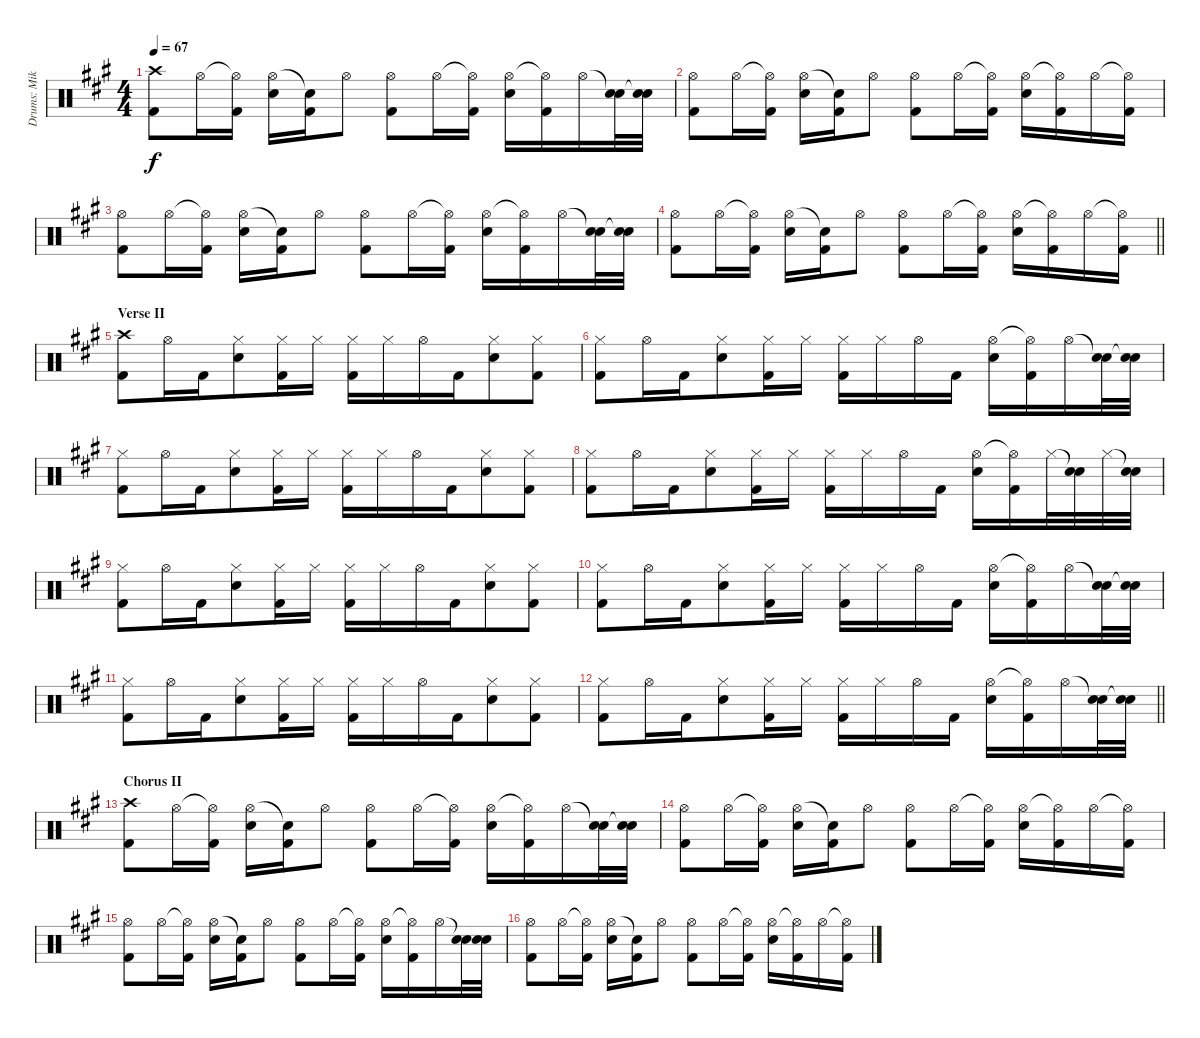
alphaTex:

\track ("Drums: Mike" "Drums: Mik") {instrument percussion}
\staff {score}
\articulation defaults
\ts (4 4)
\tempo 67
\clef neutral
\ks a
("Crash high (hit)" "Kick (hit) 2").8{dy f} "Hi-Hat (open)".16 ("Hi-Hat (open)"{t} "Kick (hit) 2").16 ("Hi-Hat (open)" "Electric Snare (hit)").16 ("Snare (hit)"{t} "Kick (hit) 2").16 "Hi-Hat (open)".8 ("Hi-Hat (open)" "Kick (hit) 2").8 "Hi-Hat (open)".16 ("Hi-Hat (open)"{t} "Kick (hit) 2").16 ("Hi-Hat (open)" "Electric Snare (hit)").16 ("Hi-Hat (open)"{t} "Kick (hit) 2").16 "Hi-Hat (open)".16 ("Snare (hit)"{t} "Electric Snare (hit)").32 ("Snare (hit)"{t} "Electric Snare (hit)").32 |
("Hi-Hat (open)" "Kick (hit) 2").8 "Hi-Hat (open)".16 ("Hi-Hat (open)"{t} "Kick (hit) 2").16 ("Hi-Hat (open)" "Electric Snare (hit)").16 ("Snare (hit)"{t} "Kick (hit) 2").16 "Hi-Hat (open)".8 ("Hi-Hat (open)" "Kick (hit) 2").8 "Hi-Hat (open)".16 ("Hi-Hat (open)"{t} "Kick (hit) 2").16 ("Hi-Hat (open)" "Electric Snare (hit)").16 ("Hi-Hat (open)"{t} "Kick (hit) 2").16 "Hi-Hat (open)".16 ("Hi-Hat (open)"{t} "Kick (hit) 2").16 |
("Hi-Hat (open)" "Kick (hit) 2").8 "Hi-Hat (open)".16 ("Hi-Hat (open)"{t} "Kick (hit) 2").16 ("Hi-Hat (open)" "Electric Snare (hit)").16 ("Snare (hit)"{t} "Kick (hit) 2").16 "Hi-Hat (open)".8 ("Hi-Hat (open)" "Kick (hit) 2").8 "Hi-Hat (open)".16 ("Hi-Hat (open)"{t} "Kick (hit) 2").16 ("Hi-Hat (open)" "Electric Snare (hit)").16 ("Hi-Hat (open)"{t} "Kick (hit) 2").16 "Hi-Hat (open)".16 ("Snare (hit)"{t} "Electric Snare (hit)").32 ("Snare (hit)"{t} "Electric Snare (hit)").32 |
\barLineRight lightlight
("Hi-Hat (open)" "Kick (hit) 2").8 "Hi-Hat (open)".16 ("Hi-Hat (open)"{t} "Kick (hit) 2").16 ("Hi-Hat (open)" "Electric Snare (hit)").16 ("Snare (hit)"{t} "Kick (hit) 2").16 "Hi-Hat (open)".8 ("Hi-Hat (open)" "Kick (hit) 2").8 "Hi-Hat (open)".16 ("Hi-Hat (open)"{t} "Kick (hit) 2").16 ("Hi-Hat (open)" "Electric Snare (hit)").16 ("Hi-Hat (open)"{t} "Kick (hit) 2").16 "Hi-Hat (open)".16 ("Hi-Hat (open)"{t} "Kick (hit) 2").16 |
\section ("" "Verse II")
("Crash high (hit)" "Kick (hit) 2").8 "Hi-Hat (open)".16 "Kick (hit) 2".16{beam merge} ("Hi-Hat (closed)" "Electric Snare (hit)").8 ("Hi-Hat (closed)" "Kick (hit) 2").16 "Hi-Hat (closed)".16 ("Hi-Hat (closed)" "Kick (hit) 2").16 "Hi-Hat (closed)".16 "Hi-Hat (open)".16 "Kick (hit) 2".16{beam merge} ("Hi-Hat (closed)" "Electric Snare (hit)").8 ("Hi-Hat (closed)" "Kick (hit) 2").8 |
("Hi-Hat (closed)" "Kick (hit) 2").8 "Hi-Hat (open)".16 "Kick (hit) 2".16{beam merge} ("Hi-Hat (closed)" "Electric Snare (hit)").8 ("Hi-Hat (closed)" "Kick (hit) 2").16 "Hi-Hat (closed)".16 ("Hi-Hat (closed)" "Kick (hit) 2").16 "Hi-Hat (closed)".16 "Hi-Hat (open)".16 "Kick (hit) 2".16 ("Hi-Hat (open)" "Electric Snare (hit)").16 ("Hi-Hat (open)"{t} "Kick (hit) 2").16 "Hi-Hat (open)".16 ("Snare (hit)"{t} "Electric Snare (hit)").32 ("Snare (hit)"{t} "Electric Snare (hit)").32 |
("Hi-Hat (closed)" "Kick (hit) 2").8 "Hi-Hat (open)".16 "Kick (hit) 2".16{beam merge} ("Hi-Hat (closed)" "Electric Snare (hit)").8 ("Hi-Hat (closed)" "Kick (hit) 2").16 "Hi-Hat (closed)".16 ("Hi-Hat (closed)" "Kick (hit) 2").16 "Hi-Hat (closed)".16 "Hi-Hat (open)".16 "Kick (hit) 2".16{beam merge} ("Hi-Hat (closed)" "Electric Snare (hit)").8 ("Hi-Hat (closed)" "Kick (hit) 2").8 |
("Hi-Hat (closed)" "Kick (hit) 2").8 "Hi-Hat (open)".16 "Kick (hit) 2".16{beam merge} ("Hi-Hat (closed)" "Electric Snare (hit)").8 ("Hi-Hat (closed)" "Kick (hit) 2").16 "Hi-Hat (closed)".16 ("Hi-Hat (closed)" "Kick (hit) 2").16 "Hi-Hat (closed)".16 "Hi-Hat (open)".16 "Kick (hit) 2".16 ("Hi-Hat (open)" "Electric Snare (hit)").16 ("Hi-Hat (open)"{t} "Kick (hit) 2").16 "Hi-Hat (closed)".32 ("Snare (hit)"{t} "Electric Snare (hit)").32 "Hi-Hat (closed)".32 ("Snare (hit)"{t} "Electric Snare (hit)").32 |
("Hi-Hat (closed)" "Kick (hit) 2").8 "Hi-Hat (open)".16 "Kick (hit) 2".16{beam merge} ("Hi-Hat (closed)" "Electric Snare (hit)").8 ("Hi-Hat (closed)" "Kick (hit) 2").16 "Hi-Hat (closed)".16 ("Hi-Hat (closed)" "Kick (hit) 2").16 "Hi-Hat (closed)".16 "Hi-Hat (open)".16 "Kick (hit) 2".16{beam merge} ("Hi-Hat (closed)" "Electric Snare (hit)").8 ("Hi-Hat (closed)" "Kick (hit) 2").8 |
("Hi-Hat (closed)" "Kick (hit) 2").8 "Hi-Hat (open)".16 "Kick (hit) 2".16{beam merge} ("Hi-Hat (closed)" "Electric Snare (hit)").8 ("Hi-Hat (closed)" "Kick (hit) 2").16 "Hi-Hat (closed)".16 ("Hi-Hat (closed)" "Kick (hit) 2").16 "Hi-Hat (closed)".16 "Hi-Hat (open)".16 "Kick (hit) 2".16 ("Hi-Hat (open)" "Electric Snare (hit)").16 ("Hi-Hat (open)"{t} "Kick (hit) 2").16 "Hi-Hat (open)".16 ("Snare (hit)"{t} "Electric Snare (hit)").32 ("Snare (hit)"{t} "Electric Snare (hit)").32 |
("Hi-Hat (closed)" "Kick (hit) 2").8 "Hi-Hat (open)".16 "Kick (hit) 2".16{beam merge} ("Hi-Hat (closed)" "Electric Snare (hit)").8 ("Hi-Hat (closed)" "Kick (hit) 2").16 "Hi-Hat (closed)".16 ("Hi-Hat (closed)" "Kick (hit) 2").16 "Hi-Hat (closed)".16 "Hi-Hat (open)".16 "Kick (hit) 2".16{beam merge} ("Hi-Hat (closed)" "Electric Snare (hit)").8 ("Hi-Hat (closed)" "Kick (hit) 2").8 |
\barLineRight lightlight
("Hi-Hat (closed)" "Kick (hit) 2").8 "Hi-Hat (open)".16 "Kick (hit) 2".16{beam merge} ("Hi-Hat (closed)" "Electric Snare (hit)").8 ("Hi-Hat (closed)" "Kick (hit) 2").16 "Hi-Hat (closed)".16 ("Hi-Hat (closed)" "Kick (hit) 2").16 "Hi-Hat (closed)".16 "Hi-Hat (open)".16 "Kick (hit) 2".16 ("Hi-Hat (open)" "Electric Snare (hit)").16 ("Hi-Hat (open)"{t} "Kick (hit) 2").16 "Hi-Hat (open)".16 ("Snare (hit)"{t} "Electric Snare (hit)").32 ("Snare (hit)"{t} "Electric Snare (hit)").32 |
\section ("" "Chorus II")
("Crash high (hit)" "Kick (hit) 2").8 "Hi-Hat (open)".16 ("Hi-Hat (open)"{t} "Kick (hit) 2").16 ("Hi-Hat (open)" "Electric Snare (hit)").16 ("Snare (hit)"{t} "Kick (hit) 2").16 "Hi-Hat (open)".8 ("Hi-Hat (open)" "Kick (hit) 2").8 "Hi-Hat (open)".16 ("Hi-Hat (open)"{t} "Kick (hit) 2").16 ("Hi-Hat (open)" "Electric Snare (hit)").16 ("Hi-Hat (open)"{t} "Kick (hit) 2").16 "Hi-Hat (open)".16 ("Snare (hit)"{t} "Electric Snare (hit)").32 ("Snare (hit)"{t} "Electric Snare (hit)").32 |
("Hi-Hat (open)" "Kick (hit) 2").8 "Hi-Hat (open)".16 ("Hi-Hat (open)"{t} "Kick (hit) 2").16 ("Hi-Hat (open)" "Electric Snare (hit)").16 ("Snare (hit)"{t} "Kick (hit) 2").16 "Hi-Hat (open)".8 ("Hi-Hat (open)" "Kick (hit) 2").8 "Hi-Hat (open)".16 ("Hi-Hat (open)"{t} "Kick (hit) 2").16 ("Hi-Hat (open)" "Electric Snare (hit)").16 ("Hi-Hat (open)"{t} "Kick (hit) 2").16 "Hi-Hat (open)".16 ("Hi-Hat (open)"{t} "Kick (hit) 2").16 |
("Hi-Hat (open)" "Kick (hit) 2").8 "Hi-Hat (open)".16 ("Hi-Hat (open)"{t} "Kick (hit) 2").16 ("Hi-Hat (open)" "Electric Snare (hit)").16 ("Snare (hit)"{t} "Kick (hit) 2").16 "Hi-Hat (open)".8 ("Hi-Hat (open)" "Kick (hit) 2").8 "Hi-Hat (open)".16 ("Hi-Hat (open)"{t} "Kick (hit) 2").16 ("Hi-Hat (open)" "Electric Snare (hit)").16 ("Hi-Hat (open)"{t} "Kick (hit) 2").16 "Hi-Hat (open)".16 ("Snare (hit)"{t} "Electric Snare (hit)").32 ("Snare (hit)"{t} "Electric Snare (hit)").32 |
("Hi-Hat (open)" "Kick (hit) 2").8 "Hi-Hat (open)".16 ("Hi-Hat (open)"{t} "Kick (hit) 2").16 ("Hi-Hat (open)" "Electric Snare (hit)").16 ("Snare (hit)"{t} "Kick (hit) 2").16 "Hi-Hat (open)".8 ("Hi-Hat (open)" "Kick (hit) 2").8 "Hi-Hat (open)".16 ("Hi-Hat (open)"{t} "Kick (hit) 2").16 ("Hi-Hat (open)" "Electric Snare (hit)").16 ("Hi-Hat (open)"{t} "Kick (hit) 2").16 "Hi-Hat (open)".16 ("Hi-Hat (open)"{t} "Kick (hit) 2").16
